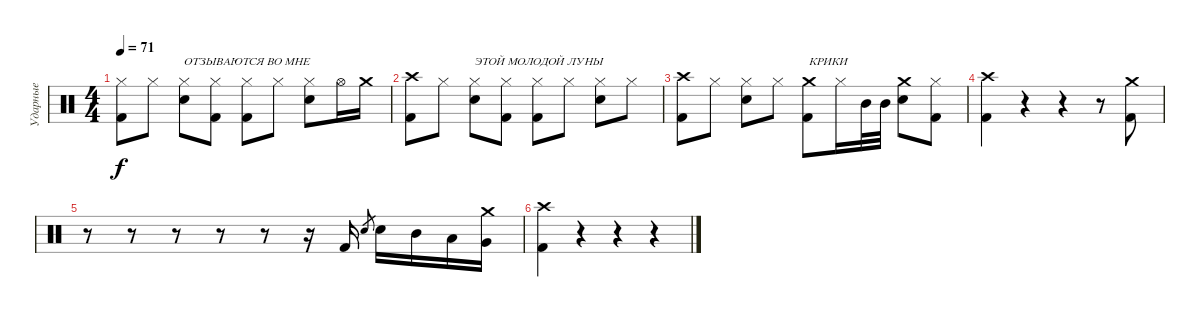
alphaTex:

\track ("Ударные" "Ударные") {instrument percussion}
\staff {score}
\articulation defaults
\ts (4 4)
\tempo 71
\clef neutral
\ks c
("Hi-Hat (closed)" "Kick (hit) 2").8{dy f} "Hi-Hat (closed)".8 ("Hi-Hat (closed)" "Snare (hit) 2").8{txt "ОТЗЫВАЮТСЯ ВО МНЕ"} ("Hi-Hat (closed)" "Kick (hit) 2").8 ("Hi-Hat (closed)" "Kick (hit) 2").8 "Hi-Hat (closed)".8 ("Hi-Hat (closed)" "Snare (hit) 2").8 "Hi-Hat (open)".16 "Crash medium (hit)".16 |
("Crash high (hit)" "Kick (hit) 2").8 "Hi-Hat (closed)".8 ("Hi-Hat (closed)" "Snare (hit) 2").8{txt "ЭТОЙ МОЛОДОЙ ЛУНЫ"} ("Hi-Hat (closed)" "Kick (hit) 2").8 ("Hi-Hat (closed)" "Kick (hit) 2").8 "Hi-Hat (closed)".8 ("Hi-Hat (closed)" "Snare (hit) 2").8 "Hi-Hat (closed)".8 |
("Crash high (hit)" "Kick (hit) 2").8 "Hi-Hat (closed)".8 ("Hi-Hat (closed)" "Snare (hit) 2").8 "Hi-Hat (closed)".8 ("Crash medium (hit)" "Kick (hit) 2").8{txt "КРИКИ"} "Hi-Hat (closed)".16 "Mid Tom (hit)".32 "Mid Tom (hit)".32 ("Crash medium (hit)" "Snare (hit) 2").8 ("Hi-Hat (closed)" "Kick (hit) 2").8 |
("Crash high (hit)" "Kick (hit) 2").4 r.4 r.4 r.8 ("Crash medium (hit)" "Kick (hit) 2").8 |
r.8 r.8 r.8 r.8 r.8 r.16 "Kick (hit) 2".16 "Snare (hit) 2".8{gr} "Snare (hit) 2".16 "Mid Tom (hit)".16 "Low Tom (hit)".16 ("Crash medium (hit)" "Very Low Tom (hit)").16 |
("Crash high (hit)" "Kick (hit) 2").4 r.4 r.4 r.4
